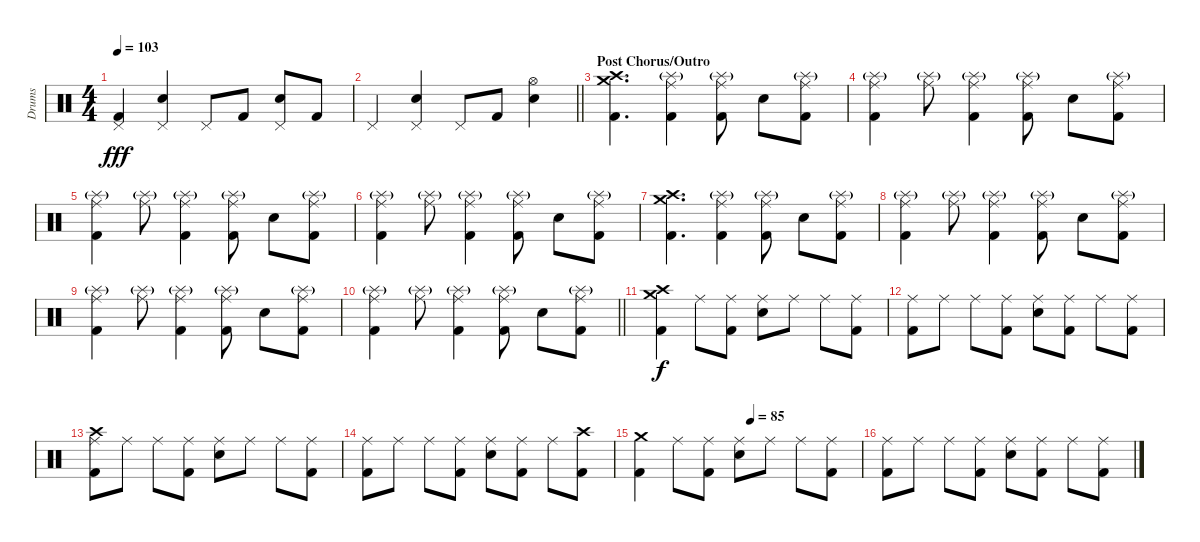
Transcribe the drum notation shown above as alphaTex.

\track ("Drums" "Drums") {instrument percussion}
\staff {score}
\articulation defaults
\ts (4 4)
\tempo 103
\clef neutral
\ks c
("Pedal Hi-Hat (hit)" "Kick (hit) 2").4{dy fff} ("Pedal Hi-Hat (hit)" "Snare (hit) 2").4 "Pedal Hi-Hat (hit)".8 "Kick (hit) 2".8 ("Pedal Hi-Hat (hit)" "Snare (hit) 2").8 "Kick (hit) 2".8 |
\barLineRight lightlight "Pedal Hi-Hat (hit)".4
("Pedal Hi-Hat (hit)" "Snare (hit) 2").4 "Pedal Hi-Hat (hit)".8 "Kick (hit) 2".8 ("Hi-Hat (open)" "Snare (hit) 2").4 |
\section ("" "Post Chorus/Outro")
("Crash medium (hit)" "Crash high (hit)" "Kick (hit) 2").4{d} ("Ride (middle)" "Splash (hit)"{g} "Kick (hit) 2").4 ("Ride (middle)" "Splash (hit)"{g} "Kick (hit) 2").8 "Snare (hit) 2".8 ("Ride (middle)" "Splash (hit)"{g} "Kick (hit) 2").8 |
("Ride (middle)" "Splash (hit)"{g} "Kick (hit) 2").4 ("Ride (middle)" "Splash (hit)"{g}).8 ("Ride (middle)" "Splash (hit)"{g} "Kick (hit) 2").4 ("Ride (middle)" "Splash (hit)"{g} "Kick (hit) 2").8 "Snare (hit) 2".8 ("Ride (middle)" "Splash (hit)"{g} "Kick (hit) 2").8 |
("Ride (middle)" "Splash (hit)"{g} "Kick (hit) 2").4 ("Ride (middle)" "Splash (hit)"{g}).8 ("Ride (middle)" "Splash (hit)"{g} "Kick (hit) 2").4 ("Ride (middle)" "Splash (hit)"{g} "Kick (hit) 2").8 "Snare (hit) 2".8 ("Ride (middle)" "Splash (hit)"{g} "Kick (hit) 2").8 |
("Ride (middle)" "Splash (hit)"{g} "Kick (hit) 2").4 ("Ride (middle)" "Splash (hit)"{g}).8 ("Ride (middle)" "Splash (hit)"{g} "Kick (hit) 2").4 ("Ride (middle)" "Splash (hit)"{g} "Kick (hit) 2").8 "Snare (hit) 2".8 ("Ride (middle)" "Splash (hit)"{g} "Kick (hit) 2").8 |
("Crash medium (hit)" "Crash high (hit)" "Kick (hit) 2").4{d} ("Ride (middle)" "Splash (hit)"{g} "Kick (hit) 2").4 ("Ride (middle)" "Splash (hit)"{g} "Kick (hit) 2").8 "Snare (hit) 2".8 ("Ride (middle)" "Splash (hit)"{g} "Kick (hit) 2").8 |
("Ride (middle)" "Splash (hit)"{g} "Kick (hit) 2").4 ("Ride (middle)" "Splash (hit)"{g}).8 ("Ride (middle)" "Splash (hit)"{g} "Kick (hit) 2").4 ("Ride (middle)" "Splash (hit)"{g} "Kick (hit) 2").8 "Snare (hit) 2".8 ("Ride (middle)" "Splash (hit)"{g} "Kick (hit) 2").8 |
("Ride (middle)" "Splash (hit)"{g} "Kick (hit) 2").4 ("Ride (middle)" "Splash (hit)"{g}).8 ("Ride (middle)" "Splash (hit)"{g} "Kick (hit) 2").4 ("Ride (middle)" "Splash (hit)"{g} "Kick (hit) 2").8 "Snare (hit) 2".8 ("Ride (middle)" "Splash (hit)"{g} "Kick (hit) 2").8 |
\barLineRight lightlight
("Ride (middle)" "Splash (hit)"{g} "Kick (hit) 2").4 ("Ride (middle)" "Splash (hit)"{g}).8 ("Ride (middle)" "Splash (hit)"{g} "Kick (hit) 2").4 ("Ride (middle)" "Splash (hit)"{g} "Kick (hit) 2").8 "Snare (hit) 2".8 ("Ride (middle)" "Splash (hit)"{g} "Kick (hit) 2").8 |
("Crash medium (hit)" "Crash high (hit)" "Kick (hit) 2").4{dy f} "Ride (middle)".8 ("Ride (middle)" "Kick (hit) 2").8 ("Ride (middle)" "Snare (hit) 2").8 "Ride (middle)".8 "Ride (middle)".8 ("Ride (middle)" "Kick (hit) 2").8 |
("Ride (middle)" "Kick (hit) 2").8 "Ride (middle)".8 "Ride (middle)".8 ("Ride (middle)" "Kick (hit) 2").8 ("Ride (middle)" "Snare (hit) 2").8 ("Ride (middle)" "Kick (hit) 2").8 "Ride (middle)".8 ("Ride (middle)" "Kick (hit) 2").8 |
("Ride (middle)" "Crash high (hit)" "Kick (hit) 2").8 "Ride (middle)".8 "Ride (middle)".8 ("Ride (middle)" "Kick (hit) 2").8 ("Ride (middle)" "Snare (hit) 2").8 "Ride (middle)".8 "Ride (middle)".8 ("Ride (middle)" "Kick (hit) 2").8 |
("Ride (middle)" "Kick (hit) 2").8 "Ride (middle)".8 "Ride (middle)".8 ("Ride (middle)" "Kick (hit) 2").8 ("Ride (middle)" "Snare (hit) 2").8 ("Ride (middle)" "Kick (hit) 2").8 "Ride (middle)".8 ("Crash high (hit)" "Kick (hit) 2").8 |
\tempo (85 0.5)
("Crash medium (hit)" "Kick (hit) 2").4 "Ride (middle)".8 ("Ride (middle)" "Kick (hit) 2").8 ("Ride (middle)" "Snare (hit) 2").8 "Ride (middle)".8 "Ride (middle)".8 ("Ride (middle)" "Kick (hit) 2").8 |
("Ride (middle)" "Kick (hit) 2").8 "Ride (middle)".8 "Ride (middle)".8 ("Ride (middle)" "Kick (hit) 2").8 ("Ride (middle)" "Snare (hit) 2").8 ("Ride (middle)" "Kick (hit) 2").8 "Ride (middle)".8 ("Ride (middle)" "Kick (hit) 2").8
